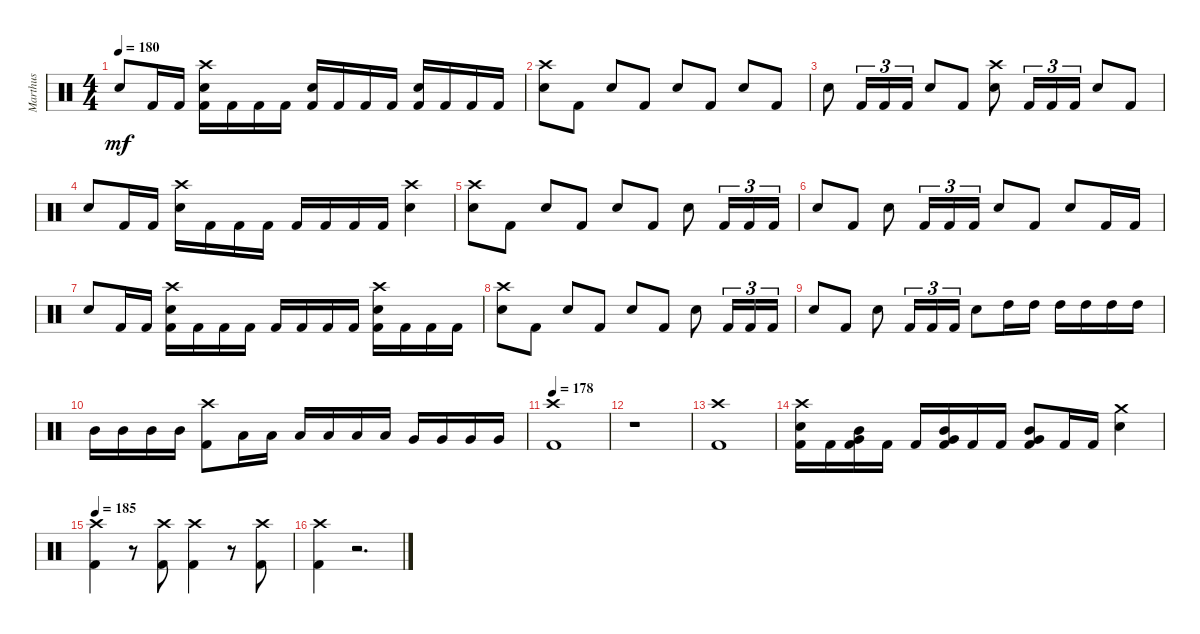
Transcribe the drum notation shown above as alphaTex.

\track ("Marthus" "Marthus") {instrument percussion}
\staff {score}
\articulation defaults
\ts (4 4)
\tempo 180
\clef neutral
\ks c "Electric Snare (hit)".8{dy mf} "Kick (hit) 2".16 "Kick (hit) 2".16
("Crash high (hit)" "Electric Snare (hit)" "Kick (hit) 2").16 "Kick (hit) 2".16 "Kick (hit) 2".16 "Kick (hit) 2".16 ("Electric Snare (hit)" "Kick (hit) 2").16 "Kick (hit) 2".16 "Kick (hit) 2".16 "Kick (hit) 2".16 ("Electric Snare (hit)" "Kick (hit) 2").16 "Kick (hit) 2".16 "Kick (hit) 2".16 "Kick (hit) 2".16 |
("Crash high (hit)" "Electric Snare (hit)").8 "Kick (hit) 2".8 "Electric Snare (hit)".8 "Kick (hit) 2".8 "Electric Snare (hit)".8 "Kick (hit) 2".8 "Electric Snare (hit)".8 "Kick (hit) 2".8 |
"Electric Snare (hit)".8 "Kick (hit) 2".16{tu (3 2)} "Kick (hit) 2".16{tu (3 2)} "Kick (hit) 2".16{tu (3 2)} "Electric Snare (hit)".8 "Kick (hit) 2".8 ("Crash high (hit)" "Electric Snare (hit)").8 "Kick (hit) 2".16{tu (3 2)} "Kick (hit) 2".16{tu (3 2)} "Kick (hit) 2".16{tu (3 2)} "Electric Snare (hit)".8 "Kick (hit) 2".8 |
"Electric Snare (hit)".8 "Kick (hit) 2".16 "Kick (hit) 2".16 ("Crash high (hit)" "Electric Snare (hit)").16 "Kick (hit) 2".16 "Kick (hit) 2".16 "Kick (hit) 2".16 "Kick (hit) 2".16 "Kick (hit) 2".16 "Kick (hit) 2".16 "Kick (hit) 2".16 ("Crash high (hit)" "Electric Snare (hit)").4 |
("Crash high (hit)" "Electric Snare (hit)").8 "Kick (hit) 2".8 "Electric Snare (hit)".8 "Kick (hit) 2".8 "Electric Snare (hit)".8 "Kick (hit) 2".8 "Electric Snare (hit)".8 "Kick (hit) 2".16{tu (3 2)} "Kick (hit) 2".16{tu (3 2)} "Kick (hit) 2".16{tu (3 2)} |
"Electric Snare (hit)".8 "Kick (hit) 2".8 "Electric Snare (hit)".8 "Kick (hit) 2".16{tu (3 2)} "Kick (hit) 2".16{tu (3 2)} "Kick (hit) 2".16{tu (3 2)} "Electric Snare (hit)".8 "Kick (hit) 2".8 "Electric Snare (hit)".8 "Kick (hit) 2".16 "Kick (hit) 2".16 |
"Electric Snare (hit)".8 "Kick (hit) 2".16 "Kick (hit) 2".16 ("Crash high (hit)" "Electric Snare (hit)" "Kick (hit) 2").16 "Kick (hit) 2".16 "Kick (hit) 2".16 "Kick (hit) 2".16 "Kick (hit) 2".16 "Kick (hit) 2".16 "Kick (hit) 2".16 "Kick (hit) 2".16 ("Crash high (hit)" "Electric Snare (hit)" "Kick (hit) 2").16 "Kick (hit) 2".16 "Kick (hit) 2".16 "Kick (hit) 2".16 |
("Crash high (hit)" "Electric Snare (hit)").8 "Kick (hit) 2".8 "Electric Snare (hit)".8 "Kick (hit) 2".8 "Electric Snare (hit)".8 "Kick (hit) 2".8 "Electric Snare (hit)".8 "Kick (hit) 2".16{tu (3 2)} "Kick (hit) 2".16{tu (3 2)} "Kick (hit) 2".16{tu (3 2)} |
"Electric Snare (hit)".8 "Kick (hit) 2".8 "Electric Snare (hit)".8 "Kick (hit) 2".16{tu (3 2)} "Kick (hit) 2".16{tu (3 2)} "Kick (hit) 2".16{tu (3 2)} "Electric Snare (hit)".8 "High Tom (hit)".16 "High Tom (hit)".16 "High Tom (hit)".16 "High Tom (hit)".16 "High Tom (hit)".16 "High Tom (hit)".16 |
"Mid Tom (hit)".16 "Mid Tom (hit)".16 "Mid Tom (hit)".16 "Mid Tom (hit)".16 ("Crash high (hit)" "Kick (hit) 2").8 "Low Tom (hit)".16 "Low Tom (hit)".16 "Low Tom (hit)".16 "Low Tom (hit)".16 "Low Tom (hit)".16 "Low Tom (hit)".16 "Very Low Tom (hit)".16 "Very Low Tom (hit)".16 "Very Low Tom (hit)".16 "Very Low Tom (hit)".16 |
\tempo 178
("Crash high (hit)" "Kick (hit) 2").1 |
r.1 |
("Crash high (hit)" "Kick (hit) 2").1 |
("Crash high (hit)" "Electric Snare (hit)" "Kick (hit) 2").16 "Kick (hit) 2".16 ("Mid Tom (hit)" "Very Low Tom (hit)" "Kick (hit) 2").16 "Kick (hit) 2".16 "Kick (hit) 2".16 ("Mid Tom (hit)" "Very Low Tom (hit)" "Kick (hit) 2").16 "Kick (hit) 2".16 "Kick (hit) 2".16 ("Mid Tom (hit)" "Very Low Tom (hit)" "Kick (hit) 2").8 "Kick (hit) 2".16 "Kick (hit) 2".16 ("Crash medium (hit)" "Electric Snare (hit)").4 |
\tempo 185
("Crash high (hit)" "Kick (hit) 2").4 r.8 ("Crash high (hit)" "Kick (hit) 2").8 ("Crash high (hit)" "Kick (hit) 2").4 r.8 ("Crash high (hit)" "Kick (hit) 2").8 |
("Crash high (hit)" "Kick (hit) 2").4 r.2{d}
